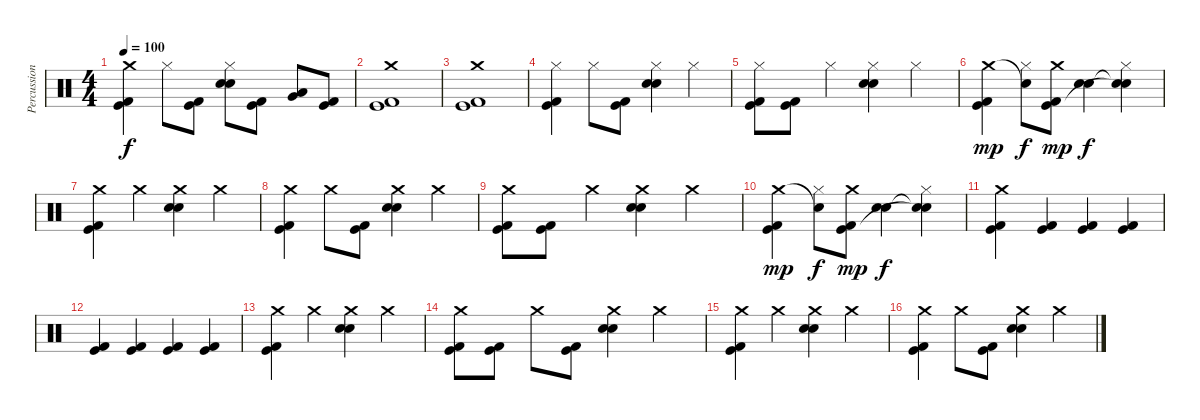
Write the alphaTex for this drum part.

\track ("Percussion" "Percussion") {instrument percussion}
\staff {score}
\articulation defaults
\ts (4 4)
\tempo 100
\clef neutral
\ks c
("Crash medium (hit)" "Kick (hit) 2" "Kick (hit)").4{dy f} "Hi-Hat (closed)".8 ("Kick (hit) 2" "Kick (hit)").8 ("Hi-Hat (closed)" "Electric Snare (hit)" "Snare (hit) 2").8 ("Kick (hit) 2" "Kick (hit)").8 ("Low Floor Tom (hit)" "Very Low Tom (hit)").8 ("Kick (hit) 2" "Kick (hit)").8 |
("Crash medium (hit)" "Kick (hit) 2" "Kick (hit)").1 |
("Crash medium (hit)" "Kick (hit) 2" "Kick (hit)").1 |
("Hi-Hat (closed)" "Kick (hit) 2" "Kick (hit)").4 "Hi-Hat (closed)".8 ("Kick (hit) 2" "Kick (hit)").8 ("Hi-Hat (closed)" "Electric Snare (hit)" "Snare (hit) 2").4 "Hi-Hat (closed)".4 |
("Hi-Hat (closed)" "Kick (hit) 2" "Kick (hit)").8 ("Kick (hit) 2" "Kick (hit)").8 "Hi-Hat (closed)".4 ("Hi-Hat (closed)" "Electric Snare (hit)" "Snare (hit) 2").4 "Hi-Hat (closed)".4 |
("Crash medium (hit)" "Kick (hit) 2" "Kick (hit)").4{dy mp} ("Snare (hit)"{t} "Hi-Hat (closed)").8{dy f} ("Crash medium (hit)" "Kick (hit) 2" "Kick (hit)").8{dy mp} ("Electric Snare (hit)" "Snare (hit) 2").4{dy f} ("Hi-Hat (closed)" "Snare (hit)"{t} "Snare (hit)"{t}).4 |
("Crash medium (hit)" "Kick (hit) 2" "Kick (hit)").4 "Crash medium (hit)".4 ("Crash medium (hit)" "Electric Snare (hit)" "Snare (hit) 2").4 "Crash medium (hit)".4 |
("Crash medium (hit)" "Kick (hit) 2" "Kick (hit)").4 "Crash medium (hit)".8 ("Kick (hit) 2" "Kick (hit)").8 ("Crash medium (hit)" "Electric Snare (hit)" "Snare (hit) 2").4 "Crash medium (hit)".4 |
("Crash medium (hit)" "Kick (hit) 2" "Kick (hit)").8 ("Kick (hit) 2" "Kick (hit)").8 "Crash medium (hit)".4 ("Crash medium (hit)" "Electric Snare (hit)" "Snare (hit) 2").4 "Crash medium (hit)".4 |
("Crash medium (hit)" "Kick (hit) 2" "Kick (hit)").4{dy mp} ("Snare (hit)"{t} "Hi-Hat (closed)").8{dy f} ("Crash medium (hit)" "Kick (hit) 2" "Kick (hit)").8{dy mp} ("Electric Snare (hit)" "Snare (hit) 2").4{dy f} ("Hi-Hat (closed)" "Snare (hit)"{t} "Snare (hit)"{t}).4 |
("Crash medium (hit)" "Kick (hit) 2" "Kick (hit)").4 ("Kick (hit) 2" "Kick (hit)").4 ("Kick (hit) 2" "Kick (hit)").4 ("Kick (hit) 2" "Kick (hit)").4 |
("Kick (hit) 2" "Kick (hit)").4 ("Kick (hit) 2" "Kick (hit)").4 ("Kick (hit) 2" "Kick (hit)").4 ("Kick (hit) 2" "Kick (hit)").4 |
("Crash medium (hit)" "Kick (hit) 2" "Kick (hit)").4 "Crash medium (hit)".4 ("Crash medium (hit)" "Electric Snare (hit)" "Snare (hit) 2").4 "Crash medium (hit)".4 |
("Crash medium (hit)" "Kick (hit) 2" "Kick (hit)").8 ("Kick (hit) 2" "Kick (hit)").8 "Crash medium (hit)".8 ("Kick (hit) 2" "Kick (hit)").8 ("Crash medium (hit)" "Electric Snare (hit)" "Snare (hit) 2").4 "Crash medium (hit)".4 |
("Crash medium (hit)" "Kick (hit) 2" "Kick (hit)").4 "Crash medium (hit)".4 ("Crash medium (hit)" "Electric Snare (hit)" "Snare (hit) 2").4 "Crash medium (hit)".4 |
("Crash medium (hit)" "Kick (hit) 2" "Kick (hit)").4 "Crash medium (hit)".8 ("Kick (hit) 2" "Kick (hit)").8 ("Crash medium (hit)" "Electric Snare (hit)" "Snare (hit) 2").4 "Crash medium (hit)".4
